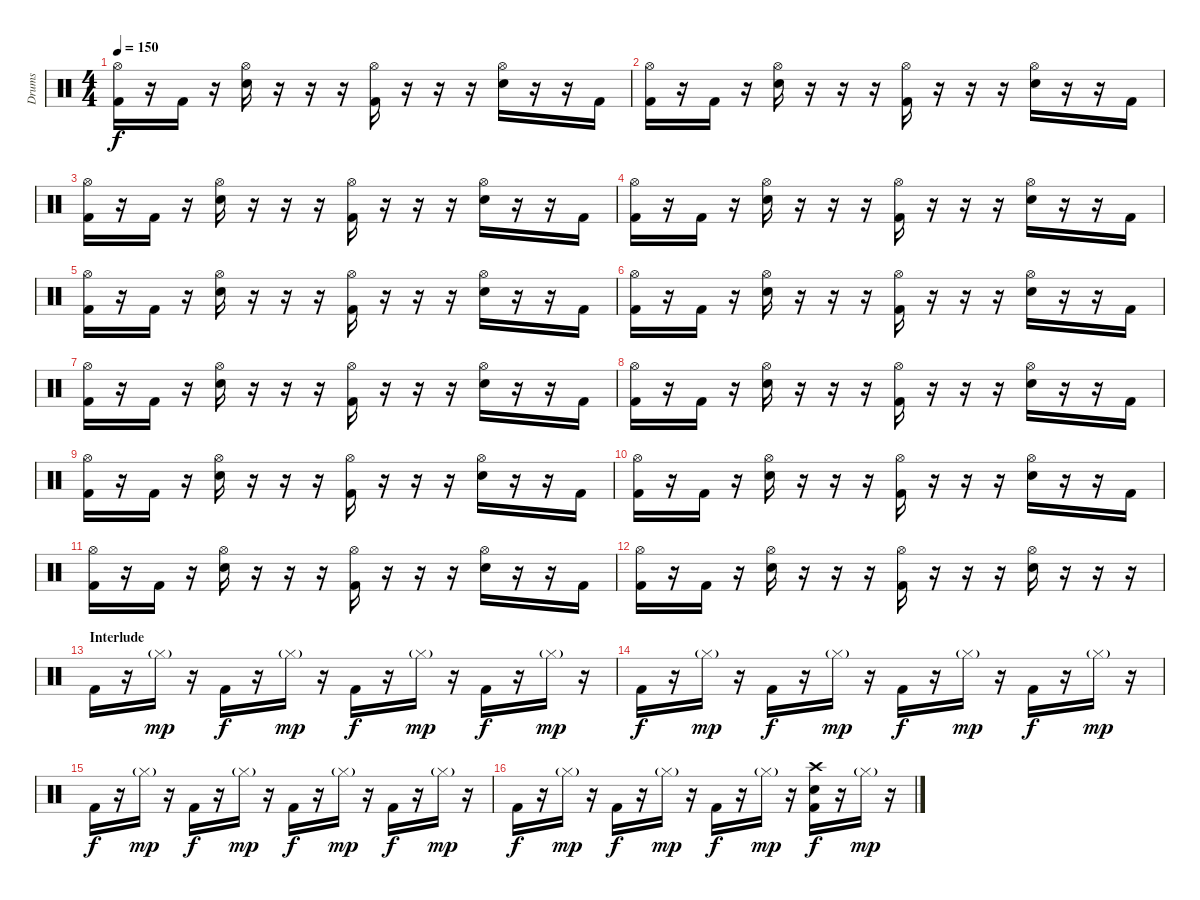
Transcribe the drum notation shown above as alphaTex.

\track ("Drums" "Drums") {instrument percussion}
\staff {score}
\articulation defaults
\ts (4 4)
\tempo 150
\clef neutral
\ks c
("Hi-Hat (open)" "Kick (hit) 2").16{dy f} r.16 "Kick (hit) 2".16 r.16 ("Hi-Hat (open)" "Electric Snare (hit)").16 r.16 r.16 r.16 ("Hi-Hat (open)" "Kick (hit) 2").16 r.16 r.16 r.16 ("Hi-Hat (open)" "Electric Snare (hit)").16 r.16 r.16 "Kick (hit) 2".16 |
("Hi-Hat (open)" "Kick (hit) 2").16 r.16 "Kick (hit) 2".16 r.16 ("Hi-Hat (open)" "Electric Snare (hit)").16 r.16 r.16 r.16 ("Hi-Hat (open)" "Kick (hit) 2").16 r.16 r.16 r.16 ("Hi-Hat (open)" "Electric Snare (hit)").16 r.16 r.16 "Kick (hit) 2".16 |
("Hi-Hat (open)" "Kick (hit) 2").16 r.16 "Kick (hit) 2".16 r.16 ("Hi-Hat (open)" "Electric Snare (hit)").16 r.16 r.16 r.16 ("Hi-Hat (open)" "Kick (hit) 2").16 r.16 r.16 r.16 ("Hi-Hat (open)" "Electric Snare (hit)").16 r.16 r.16 "Kick (hit) 2".16 |
("Hi-Hat (open)" "Kick (hit) 2").16 r.16 "Kick (hit) 2".16 r.16 ("Hi-Hat (open)" "Electric Snare (hit)").16 r.16 r.16 r.16 ("Hi-Hat (open)" "Kick (hit) 2").16 r.16 r.16 r.16 ("Hi-Hat (open)" "Electric Snare (hit)").16 r.16 r.16 "Kick (hit) 2".16 |
("Hi-Hat (open)" "Kick (hit) 2").16 r.16 "Kick (hit) 2".16 r.16 ("Hi-Hat (open)" "Electric Snare (hit)").16 r.16 r.16 r.16 ("Hi-Hat (open)" "Kick (hit) 2").16 r.16 r.16 r.16 ("Hi-Hat (open)" "Electric Snare (hit)").16 r.16 r.16 "Kick (hit) 2".16 |
("Hi-Hat (open)" "Kick (hit) 2").16 r.16 "Kick (hit) 2".16 r.16 ("Hi-Hat (open)" "Electric Snare (hit)").16 r.16 r.16 r.16 ("Hi-Hat (open)" "Kick (hit) 2").16 r.16 r.16 r.16 ("Hi-Hat (open)" "Electric Snare (hit)").16 r.16 r.16 "Kick (hit) 2".16 |
("Hi-Hat (open)" "Kick (hit) 2").16 r.16 "Kick (hit) 2".16 r.16 ("Hi-Hat (open)" "Electric Snare (hit)").16 r.16 r.16 r.16 ("Hi-Hat (open)" "Kick (hit) 2").16 r.16 r.16 r.16 ("Hi-Hat (open)" "Electric Snare (hit)").16 r.16 r.16 "Kick (hit) 2".16 |
("Hi-Hat (open)" "Kick (hit) 2").16 r.16 "Kick (hit) 2".16 r.16 ("Hi-Hat (open)" "Electric Snare (hit)").16 r.16 r.16 r.16 ("Hi-Hat (open)" "Kick (hit) 2").16 r.16 r.16 r.16 ("Hi-Hat (open)" "Electric Snare (hit)").16 r.16 r.16 "Kick (hit) 2".16 |
("Hi-Hat (open)" "Kick (hit) 2").16 r.16 "Kick (hit) 2".16 r.16 ("Hi-Hat (open)" "Electric Snare (hit)").16 r.16 r.16 r.16 ("Hi-Hat (open)" "Kick (hit) 2").16 r.16 r.16 r.16 ("Hi-Hat (open)" "Electric Snare (hit)").16 r.16 r.16 "Kick (hit) 2".16 |
("Hi-Hat (open)" "Kick (hit) 2").16 r.16 "Kick (hit) 2".16 r.16 ("Hi-Hat (open)" "Electric Snare (hit)").16 r.16 r.16 r.16 ("Hi-Hat (open)" "Kick (hit) 2").16 r.16 r.16 r.16 ("Hi-Hat (open)" "Electric Snare (hit)").16 r.16 r.16 "Kick (hit) 2".16 |
("Hi-Hat (open)" "Kick (hit) 2").16 r.16 "Kick (hit) 2".16 r.16 ("Hi-Hat (open)" "Electric Snare (hit)").16 r.16 r.16 r.16 ("Hi-Hat (open)" "Kick (hit) 2").16 r.16 r.16 r.16 ("Hi-Hat (open)" "Electric Snare (hit)").16 r.16 r.16 "Kick (hit) 2".16 |
("Hi-Hat (open)" "Kick (hit) 2").16 r.16 "Kick (hit) 2".16 r.16 ("Hi-Hat (open)" "Electric Snare (hit)").16 r.16 r.16 r.16 ("Hi-Hat (open)" "Kick (hit) 2").16 r.16 r.16 r.16 ("Hi-Hat (open)" "Electric Snare (hit)").16 r.16 r.16 r.16 |
\section ("" "Interlude")
"Kick (hit) 2".16 r.16 "Hi-Hat (closed)"{g}.16{dy mp} r.16 "Kick (hit) 2".16{dy f} r.16 "Hi-Hat (closed)"{g}.16{dy mp} r.16 "Kick (hit) 2".16{dy f} r.16 "Hi-Hat (closed)"{g}.16{dy mp} r.16 "Kick (hit) 2".16{dy f} r.16 "Hi-Hat (closed)"{g}.16{dy mp} r.16 |
"Kick (hit) 2".16{dy f} r.16 "Hi-Hat (closed)"{g}.16{dy mp} r.16 "Kick (hit) 2".16{dy f} r.16 "Hi-Hat (closed)"{g}.16{dy mp} r.16 "Kick (hit) 2".16{dy f} r.16 "Hi-Hat (closed)"{g}.16{dy mp} r.16 "Kick (hit) 2".16{dy f} r.16 "Hi-Hat (closed)"{g}.16{dy mp} r.16 |
"Kick (hit) 2".16{dy f} r.16 "Hi-Hat (closed)"{g}.16{dy mp} r.16 "Kick (hit) 2".16{dy f} r.16 "Hi-Hat (closed)"{g}.16{dy mp} r.16 "Kick (hit) 2".16{dy f} r.16 "Hi-Hat (closed)"{g}.16{dy mp} r.16 "Kick (hit) 2".16{dy f} r.16 "Hi-Hat (closed)"{g}.16{dy mp} r.16 |
"Kick (hit) 2".16{dy f} r.16 "Hi-Hat (closed)"{g}.16{dy mp} r.16 "Kick (hit) 2".16{dy f} r.16 "Hi-Hat (closed)"{g}.16{dy mp} r.16 "Kick (hit) 2".16{dy f} r.16 "Hi-Hat (closed)"{g}.16{dy mp} r.16 ("Crash high (hit)" "Snare (hit) 2" "Kick (hit) 2").16{dy f} r.16 "Hi-Hat (closed)"{g}.16{dy mp} r.16
